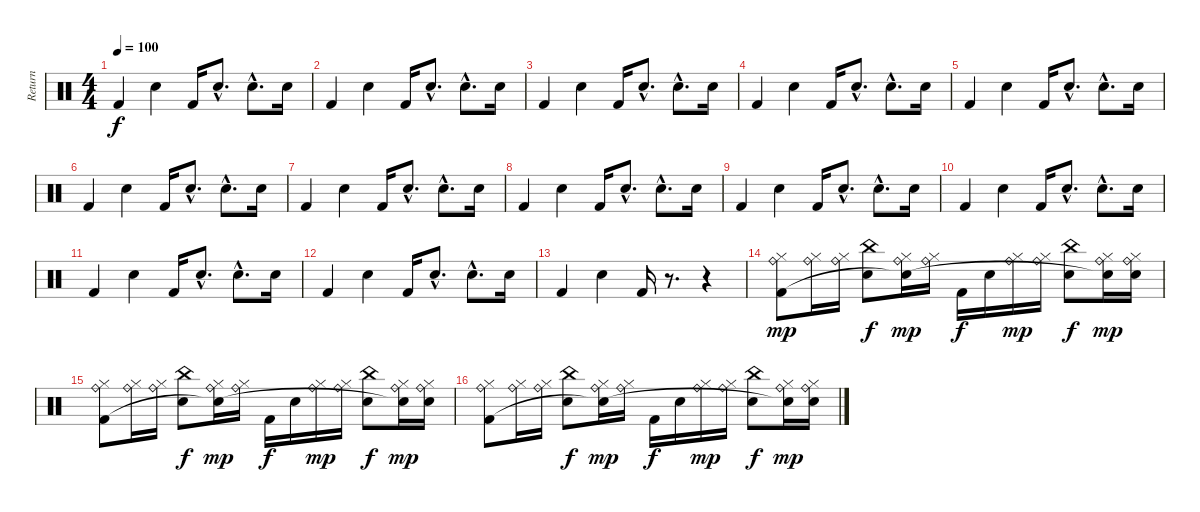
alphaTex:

\track ("    Return" "    Return") {instrument percussion}
\staff {score}
\articulation defaults
\ts (4 4)
\tempo 100
\clef neutral
\ks c "Kick (hit) 2".4{dy f} "Electric Snare (hit)".4 "Kick (hit) 2".16 "Snare (hit) 2"{hac}.8{d} "Electric Snare (hit)"{hac}.8{d} "Snare (hit) 2".16
|
"Kick (hit) 2".4 "Electric Snare (hit)".4 "Kick (hit) 2".16 "Snare (hit) 2"{hac}.8{d} "Electric Snare (hit)"{hac}.8{d} "Snare (hit) 2".16 |
"Kick (hit) 2".4 "Electric Snare (hit)".4 "Kick (hit) 2".16 "Snare (hit) 2"{hac}.8{d} "Electric Snare (hit)"{hac}.8{d} "Snare (hit) 2".16 |
"Kick (hit) 2".4 "Electric Snare (hit)".4 "Kick (hit) 2".16 "Snare (hit) 2"{hac}.8{d} "Electric Snare (hit)"{hac}.8{d} "Snare (hit) 2".16 |
"Kick (hit) 2".4 "Electric Snare (hit)".4 "Kick (hit) 2".16 "Snare (hit) 2"{hac}.8{d} "Electric Snare (hit)"{hac}.8{d} "Snare (hit) 2".16 |
"Kick (hit) 2".4 "Electric Snare (hit)".4 "Kick (hit) 2".16 "Snare (hit) 2"{hac}.8{d} "Electric Snare (hit)"{hac}.8{d} "Snare (hit) 2".16 |
"Kick (hit) 2".4 "Electric Snare (hit)".4 "Kick (hit) 2".16 "Snare (hit) 2"{hac}.8{d} "Electric Snare (hit)"{hac}.8{d} "Snare (hit) 2".16 |
"Kick (hit) 2".4 "Electric Snare (hit)".4 "Kick (hit) 2".16 "Snare (hit) 2"{hac}.8{d} "Electric Snare (hit)"{hac}.8{d} "Snare (hit) 2".16 |
"Kick (hit) 2".4 "Electric Snare (hit)".4 "Kick (hit) 2".16 "Snare (hit) 2"{hac}.8{d} "Electric Snare (hit)"{hac}.8{d} "Snare (hit) 2".16 |
"Kick (hit) 2".4 "Electric Snare (hit)".4 "Kick (hit) 2".16 "Snare (hit) 2"{hac}.8{d} "Electric Snare (hit)"{hac}.8{d} "Snare (hit) 2".16 |
"Kick (hit) 2".4 "Electric Snare (hit)".4 "Kick (hit) 2".16 "Snare (hit) 2"{hac}.8{d} "Electric Snare (hit)"{hac}.8{d} "Snare (hit) 2".16 |
"Kick (hit) 2".4 "Electric Snare (hit)".4 "Kick (hit) 2".16 "Snare (hit) 2"{hac}.8{d} "Electric Snare (hit)"{hac}.8{d} "Snare (hit) 2".16 |
"Kick (hit) 2".4 "Electric Snare (hit)".4 "Kick (hit) 2".16 r.8{d} r.4 |
("Hi-Hat (closed)" "Ride (bell)" "Kick (hit) 2").8{dy mp} ("Hi-Hat (closed)" "Ride (bell)").16 ("Hi-Hat (closed)" "Ride (bell)").16 ("Electric Snare (hit)" "China (hit)").8{dy f} ("Hi-Hat (closed)" "Ride (bell)" "Snare (hit)"{t}).16{dy mp} ("Hi-Hat (closed)" "Ride (bell)").16 "Kick (hit) 2".16{dy f} "Snare (hit) 2".16 ("Hi-Hat (closed)" "Ride (bell)").16{dy mp} ("Hi-Hat (closed)" "Ride (bell)").16 ("Electric Snare (hit)" "China (hit)").8{dy f} ("Hi-Hat (closed)" "Ride (bell)" "Snare (hit)"{t}).16{dy mp} ("Hi-Hat (closed)" "Ride (bell)" "Snare (hit) 2").16 |
("Hi-Hat (closed)" "Ride (bell)" "Kick (hit) 2").8 ("Hi-Hat (closed)" "Ride (bell)").16 ("Hi-Hat (closed)" "Ride (bell)").16 ("Electric Snare (hit)" "China (hit)").8{dy f} ("Hi-Hat (closed)" "Ride (bell)" "Snare (hit)"{t}).16{dy mp} ("Hi-Hat (closed)" "Ride (bell)").16 "Kick (hit) 2".16{dy f} "Snare (hit) 2".16 ("Hi-Hat (closed)" "Ride (bell)").16{dy mp} ("Hi-Hat (closed)" "Ride (bell)").16 ("Electric Snare (hit)" "China (hit)").8{dy f} ("Hi-Hat (closed)" "Ride (bell)" "Snare (hit)"{t}).16{dy mp} ("Hi-Hat (closed)" "Ride (bell)" "Snare (hit) 2").16 |
("Hi-Hat (closed)" "Ride (bell)" "Kick (hit) 2").8 ("Hi-Hat (closed)" "Ride (bell)").16 ("Hi-Hat (closed)" "Ride (bell)").16 ("Electric Snare (hit)" "China (hit)").8{dy f} ("Hi-Hat (closed)" "Ride (bell)" "Snare (hit)"{t}).16{dy mp} ("Hi-Hat (closed)" "Ride (bell)").16 "Kick (hit) 2".16{dy f} "Snare (hit) 2".16 ("Hi-Hat (closed)" "Ride (bell)").16{dy mp} ("Hi-Hat (closed)" "Ride (bell)").16 ("Electric Snare (hit)" "China (hit)").8{dy f} ("Hi-Hat (closed)" "Ride (bell)" "Snare (hit)"{t}).16{dy mp} ("Hi-Hat (closed)" "Ride (bell)" "Snare (hit) 2").16
